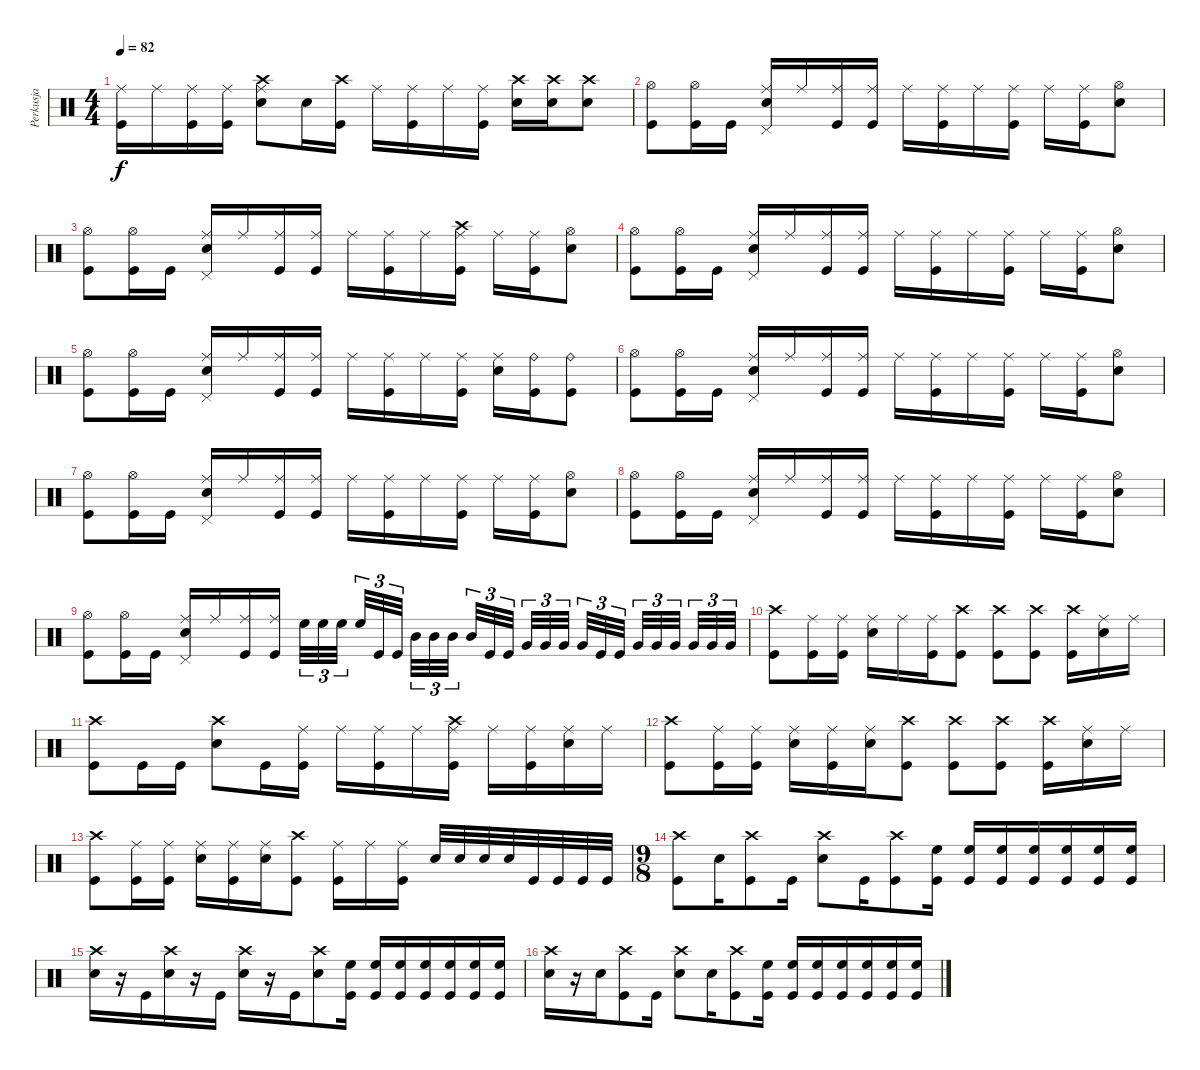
\track ("Perkusja" "Perkusja") {instrument percussion}
\staff {score}
\articulation defaults
\ts (4 4)
\tempo 82
\clef neutral
\ks c
("Ride (middle)" "Kick (hit)").16{dy f} "Ride (middle)".16 ("Ride (middle)" "Kick (hit)").16 ("Ride (middle)" "Kick (hit)").16 ("Crash high (hit)" "Ride (middle)" "Electric Snare (hit)").8 "Electric Snare (hit)".16 ("Crash high (hit)" "Kick (hit)").16 "Ride (middle)".16 ("Ride (middle)" "Kick (hit)").16 "Ride (middle)".16 ("Ride (middle)" "Kick (hit)").16 ("Crash high (hit)" "Electric Snare (hit)").16 ("Crash high (hit)" "Electric Snare (hit)").16 ("Crash high (hit)" "Electric Snare (hit)").8 |
("Hi-Hat (open)" "Kick (hit)").8 ("Hi-Hat (open)" "Kick (hit)").16 "Kick (hit)".16 ("Ride (middle)" "Electric Snare (hit)" "Pedal Hi-Hat (hit)").16 "Ride (middle)".16 ("Ride (middle)" "Kick (hit)").16 ("Ride (middle)" "Kick (hit)").16 "Ride (middle)".16 ("Ride (middle)" "Kick (hit)").16 "Ride (middle)".16 ("Ride (middle)" "Kick (hit)").16 "Ride (middle)".16 ("Ride (middle)" "Kick (hit)").16 ("Hi-Hat (open)" "Electric Snare (hit)").8 |
("Hi-Hat (open)" "Kick (hit)").8 ("Hi-Hat (open)" "Kick (hit)").16 "Kick (hit)".16 ("Ride (middle)" "Electric Snare (hit)" "Pedal Hi-Hat (hit)").16 "Ride (middle)".16 ("Ride (middle)" "Kick (hit)").16 ("Ride (middle)" "Kick (hit)").16 "Ride (middle)".16 ("Ride (middle)" "Kick (hit)").16 "Ride (middle)".16 ("Crash high (hit)" "Ride (middle)" "Kick (hit)").16 "Ride (middle)".16 ("Ride (middle)" "Kick (hit)").16 ("Hi-Hat (open)" "Electric Snare (hit)").8 |
("Hi-Hat (open)" "Kick (hit)").8 ("Hi-Hat (open)" "Kick (hit)").16 "Kick (hit)".16 ("Ride (middle)" "Electric Snare (hit)" "Pedal Hi-Hat (hit)").16 "Ride (middle)".16 ("Ride (middle)" "Kick (hit)").16 ("Ride (middle)" "Kick (hit)").16 "Ride (middle)".16 ("Ride (middle)" "Kick (hit)").16 "Ride (middle)".16 ("Ride (middle)" "Kick (hit)").16 "Ride (middle)".16 ("Ride (middle)" "Kick (hit)").16 ("Hi-Hat (open)" "Electric Snare (hit)").8 |
("Hi-Hat (open)" "Kick (hit)").8 ("Hi-Hat (open)" "Kick (hit)").16 "Kick (hit)".16 ("Ride (middle)" "Electric Snare (hit)" "Pedal Hi-Hat (hit)").16 "Ride (middle)".16 ("Ride (middle)" "Kick (hit)").16 ("Ride (middle)" "Kick (hit)").16 "Ride (middle)".16 ("Ride (middle)" "Kick (hit)").16 "Ride (middle)".16 ("Ride (middle)" "Kick (hit)").16 ("Ride (middle)" "Electric Snare (hit)").16 ("Ride (bell)" "Kick (hit)").16 ("Ride (bell)" "Kick (hit)").8 |
("Hi-Hat (open)" "Kick (hit)").8 ("Hi-Hat (open)" "Kick (hit)").16 "Kick (hit)".16 ("Ride (middle)" "Electric Snare (hit)" "Pedal Hi-Hat (hit)").16 "Ride (middle)".16 ("Ride (middle)" "Kick (hit)").16 ("Ride (middle)" "Kick (hit)").16 "Ride (middle)".16 ("Ride (middle)" "Kick (hit)").16 "Ride (middle)".16 ("Ride (middle)" "Kick (hit)").16 "Ride (middle)".16 ("Ride (middle)" "Kick (hit)").16 ("Hi-Hat (open)" "Electric Snare (hit)").8 |
("Hi-Hat (open)" "Kick (hit)").8 ("Hi-Hat (open)" "Kick (hit)").16 "Kick (hit)".16 ("Ride (middle)" "Electric Snare (hit)" "Pedal Hi-Hat (hit)").16 "Ride (middle)".16 ("Ride (middle)" "Kick (hit)").16 ("Ride (middle)" "Kick (hit)").16 "Ride (middle)".16 ("Ride (middle)" "Kick (hit)").16 "Ride (middle)".16 ("Ride (middle)" "Kick (hit)").16 "Ride (middle)".16 ("Ride (middle)" "Kick (hit)").16 ("Hi-Hat (open)" "Electric Snare (hit)").8 |
("Hi-Hat (open)" "Kick (hit)").8 ("Hi-Hat (open)" "Kick (hit)").16 "Kick (hit)".16 ("Ride (middle)" "Electric Snare (hit)" "Pedal Hi-Hat (hit)").16 "Ride (middle)".16 ("Ride (middle)" "Kick (hit)").16 ("Ride (middle)" "Kick (hit)").16 "Ride (middle)".16 ("Ride (middle)" "Kick (hit)").16 "Ride (middle)".16 ("Ride (middle)" "Kick (hit)").16 "Ride (middle)".16 ("Ride (middle)" "Kick (hit)").16 ("Hi-Hat (open)" "Electric Snare (hit)").8 |
("Hi-Hat (open)" "Kick (hit)").8 ("Hi-Hat (open)" "Kick (hit)").16 "Kick (hit)".16 ("Ride (middle)" "Electric Snare (hit)" "Pedal Hi-Hat (hit)").16 "Ride (middle)".16 ("Ride (middle)" "Kick (hit)").16 ("Ride (middle)" "Kick (hit)").16 "High Floor Tom (hit)".32{tu (3 2)} "High Floor Tom (hit)".32{tu (3 2)} "High Floor Tom (hit)".32{tu (3 2) beam splitsecondary} "High Floor Tom (hit)".32{tu (3 2)} "Kick (hit)".32{tu (3 2)} "Kick (hit)".32{tu (3 2) beam splitsecondary} "Mid Tom (hit)".32{tu (3 2)} "Mid Tom (hit)".32{tu (3 2)} "Mid Tom (hit)".32{tu (3 2) beam splitsecondary} "Mid Tom (hit)".32{tu (3 2)} "Kick (hit)".32{tu (3 2)} "Kick (hit)".32{tu (3 2)} "Very Low Tom (hit)".32{tu (3 2)} "Very Low Tom (hit)".32{tu (3 2)} "Very Low Tom (hit)".32{tu (3 2) beam splitsecondary} "Very Low Tom (hit)".32{tu (3 2)} "Kick (hit)".32{tu (3 2)} "Kick (hit)".32{tu (3 2) beam splitsecondary} "Very Low Tom (hit)".32{tu (3 2)} "Very Low Tom (hit)".32{tu (3 2)} "Very Low Tom (hit)".32{tu (3 2) beam splitsecondary} "Very Low Tom (hit)".32{tu (3 2)} "Very Low Tom (hit)".32{tu (3 2)} "Very Low Tom (hit)".32{tu (3 2)} |
("Crash high (hit)" "Kick (hit)").8 ("Ride (middle)" "Kick (hit)").16 ("Ride (middle)" "Kick (hit)").16 ("Ride (middle)" "Electric Snare (hit)").16 "Ride (middle)".16 ("Ride (middle)" "Kick (hit)").16 ("Crash high (hit)" "Kick (hit)").8 ("Crash high (hit)" "Kick (hit)").8 ("Crash high (hit)" "Kick (hit)").8 ("Crash high (hit)" "Kick (hit)").16 ("Ride (middle)" "Electric Snare (hit)").16 "Ride (middle)".16 |
("Crash high (hit)" "Kick (hit)").8 "Kick (hit)".16 "Kick (hit)".16 ("Crash high (hit)" "Electric Snare (hit)").8 "Kick (hit)".16 ("Ride (middle)" "Kick (hit)").16 "Ride (middle)".16 ("Ride (middle)" "Kick (hit)").16 "Ride (middle)".16 ("Crash high (hit)" "Ride (middle)" "Kick (hit)").16 "Ride (middle)".16 ("Ride (middle)" "Kick (hit)").16 ("Ride (middle)" "Electric Snare (hit)").16 "Ride (middle)".16 |
("Crash high (hit)" "Kick (hit)").8 ("Ride (middle)" "Kick (hit)").16 ("Ride (middle)" "Kick (hit)").16 ("Ride (middle)" "Electric Snare (hit)").16 ("Ride (middle)" "Kick (hit)").16 ("Ride (middle)" "Electric Snare (hit)").16 ("Crash high (hit)" "Kick (hit)").8 ("Crash high (hit)" "Kick (hit)").8 ("Crash high (hit)" "Kick (hit)").8 ("Crash high (hit)" "Kick (hit)").16 ("Ride (middle)" "Electric Snare (hit)").16 "Ride (middle)".16 |
("Crash high (hit)" "Kick (hit)").8 ("Ride (middle)" "Kick (hit)").16 ("Ride (middle)" "Kick (hit)").16 ("Ride (middle)" "Electric Snare (hit)").16 ("Ride (middle)" "Kick (hit)").16 ("Ride (middle)" "Electric Snare (hit)").16 ("Crash high (hit)" "Kick (hit)").8 ("Ride (middle)" "Kick (hit)").16 "Ride (middle)".16 ("Ride (middle)" "Kick (hit)").16 "Electric Snare (hit)".32 "Electric Snare (hit)".32 "Electric Snare (hit)".32 "Electric Snare (hit)".32 "Kick (hit)".32 "Kick (hit)".32 "Kick (hit)".32 "Kick (hit)".32 |
\ts (9 8)
("Crash high (hit)" "Kick (hit)").8 "Electric Snare (hit)".16 ("Crash high (hit)" "Kick (hit)").8 "Kick (hit)".16 ("Crash high (hit)" "Electric Snare (hit)").8 "Kick (hit)".16 ("Crash high (hit)" "Kick (hit)").8 ("High Floor Tom (hit)" "Kick (hit)").16 ("High Floor Tom (hit)" "Kick (hit)").16 ("High Floor Tom (hit)" "Kick (hit)").16 ("High Floor Tom (hit)" "Kick (hit)").16 ("High Floor Tom (hit)" "Kick (hit)").16 ("High Floor Tom (hit)" "Kick (hit)").16 ("High Floor Tom (hit)" "Kick (hit)").16 |
("Crash high (hit)" "Electric Snare (hit)").16 r.16 "Kick (hit)".16 ("Crash high (hit)" "Electric Snare (hit)").16 r.16 "Kick (hit)".16 ("Crash high (hit)" "Electric Snare (hit)").16 r.16 "Kick (hit)".16 ("Crash high (hit)" "Electric Snare (hit)").8 ("High Floor Tom (hit)" "Kick (hit)").16 ("High Floor Tom (hit)" "Kick (hit)").16 ("High Floor Tom (hit)" "Kick (hit)").16 ("High Floor Tom (hit)" "Kick (hit)").16 ("High Floor Tom (hit)" "Kick (hit)").16 ("High Floor Tom (hit)" "Kick (hit)").16 ("High Floor Tom (hit)" "Kick (hit)").16 |
("Crash high (hit)" "Electric Snare (hit)").16 r.16 "Electric Snare (hit)".16 ("Crash high (hit)" "Kick (hit)").8 "Kick (hit)".16 ("Crash high (hit)" "Electric Snare (hit)").8 "Electric Snare (hit)".16 ("Crash high (hit)" "Kick (hit)").8 ("High Floor Tom (hit)" "Kick (hit)").16 ("High Floor Tom (hit)" "Kick (hit)").16 ("High Floor Tom (hit)" "Kick (hit)").16 ("High Floor Tom (hit)" "Kick (hit)").16 ("High Floor Tom (hit)" "Kick (hit)").16 ("High Floor Tom (hit)" "Kick (hit)").16 ("High Floor Tom (hit)" "Kick (hit)").16
